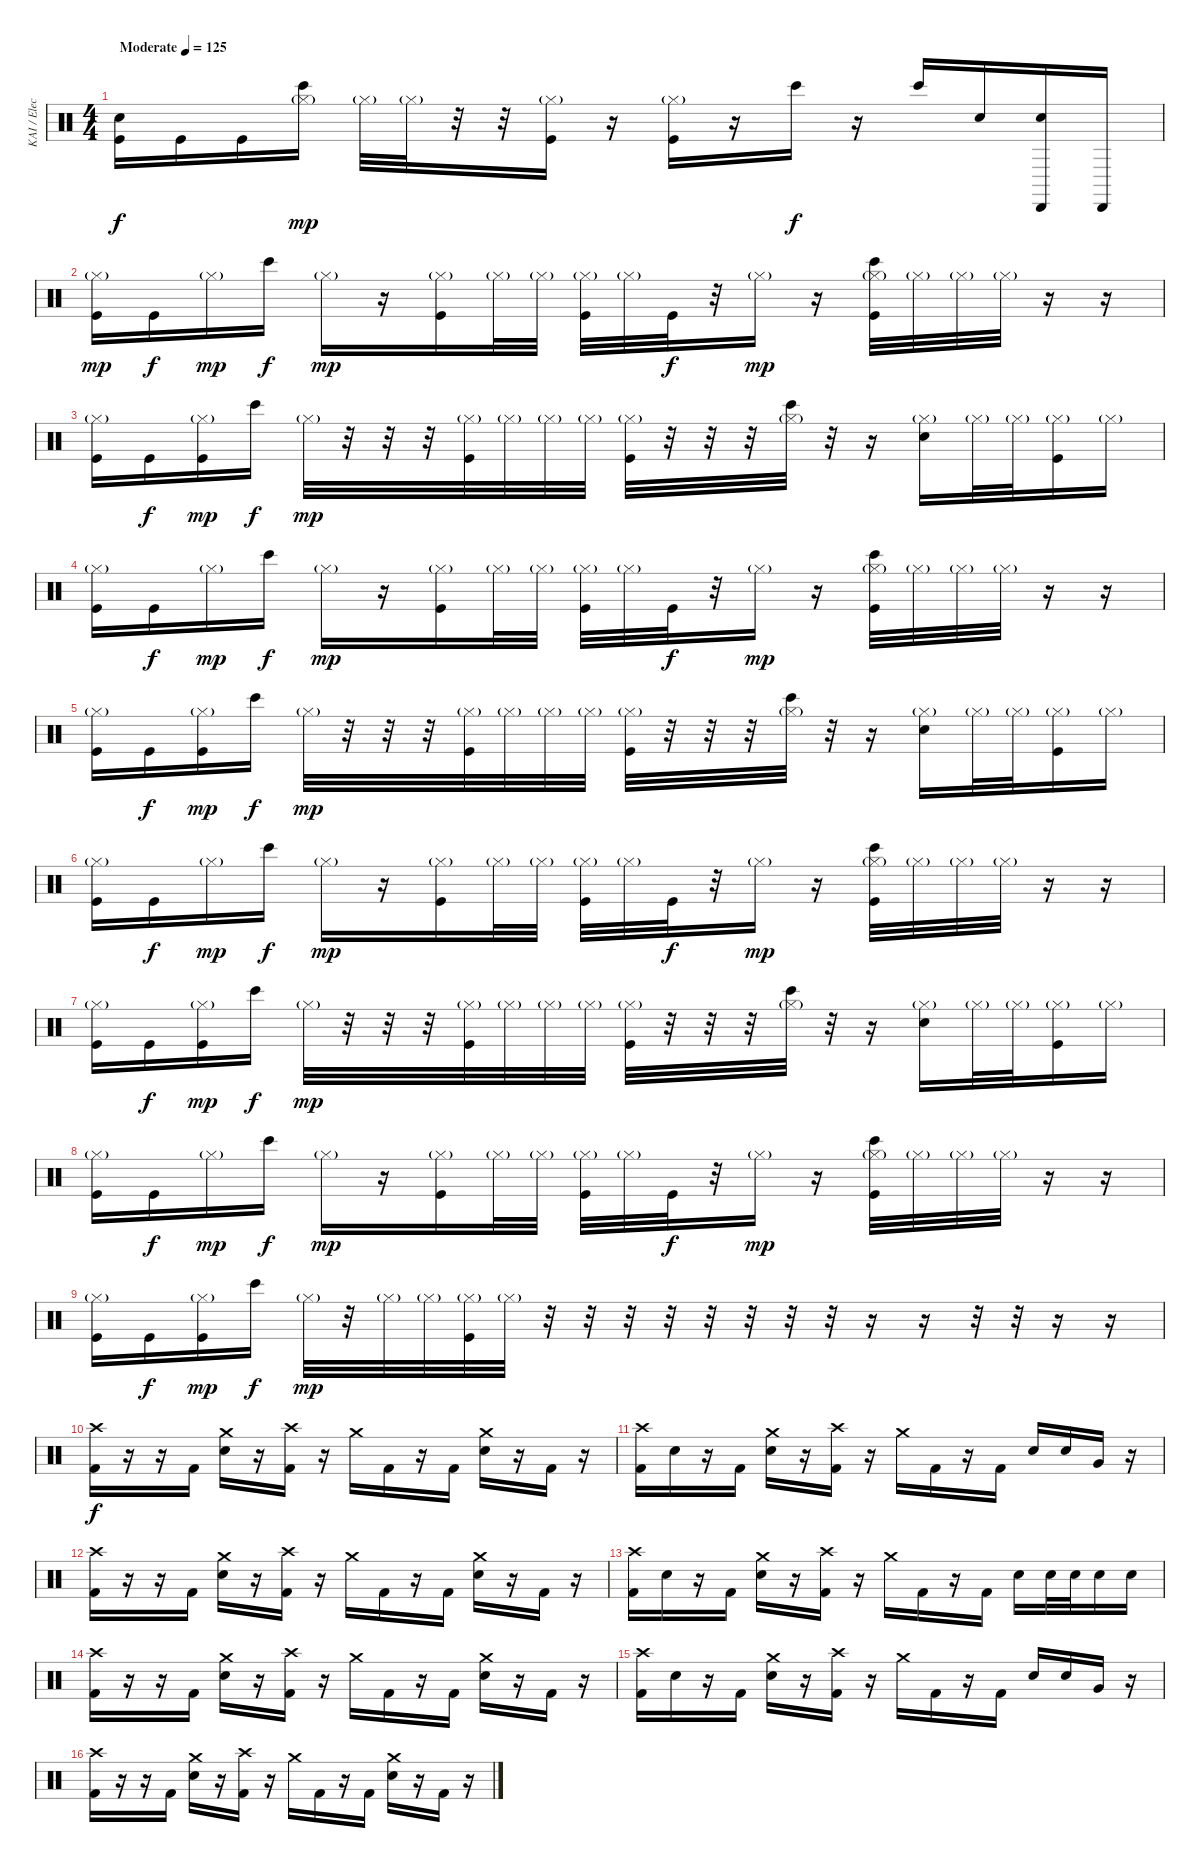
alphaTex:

\track ("KAI / Elect. Drums" "KAI / Elec") {instrument percussion}
\staff {score}
\articulation defaults
\ts (4 4)
\tempo (125 "Moderate")
\clef neutral
\ks c
("Hand Clap (hit)" "Kick (hit)").16{dy f} "Kick (hit)".16 "Kick (hit)".16 ("Bongo High (hit)" "Hi-Hat (closed)"{g}).16{dy mp} "Hi-Hat (closed)"{g}.32 "Hi-Hat (closed)"{g}.32 r.32 r.32 ("Hi-Hat (closed)"{g} "Kick (hit)").16 r.16 ("Hi-Hat (closed)"{g} "Kick (hit)").16 r.16 "Bongo High (hit)".16{dy f} r.16 "Bongo High (hit)".16 "Hand Clap (hit)".16 ("Hand Clap (hit)" "Cabasa (hit)").16 "Cabasa (hit)".16 |
("Hi-Hat (closed)"{g} "Kick (hit)").16{dy mp} "Kick (hit)".16{dy f} "Hi-Hat (closed)"{g}.16{dy mp} "Bongo High (hit)".16{dy f} "Hi-Hat (closed)"{g}.16{dy mp} r.16 ("Hi-Hat (closed)"{g} "Kick (hit)").16 "Hi-Hat (closed)"{g}.32 "Hi-Hat (closed)"{g}.32 ("Hi-Hat (closed)"{g} "Kick (hit)").32 "Hi-Hat (closed)"{g}.32 "Kick (hit)".32{dy f} r.32 "Hi-Hat (closed)"{g}.16{dy mp} r.16 ("Bongo High (hit)" "Hi-Hat (closed)"{g} "Kick (hit)").32 "Hi-Hat (closed)"{g}.32 "Hi-Hat (closed)"{g}.32 "Hi-Hat (closed)"{g}.32 r.16 r.16 |
("Hi-Hat (closed)"{g} "Kick (hit)").16 "Kick (hit)".16{dy f} ("Hi-Hat (closed)"{g} "Kick (hit)").16{dy mp} "Bongo High (hit)".16{dy f} "Hi-Hat (closed)"{g}.32{dy mp} r.32 r.32 r.32 ("Hi-Hat (closed)"{g} "Kick (hit)").32 "Hi-Hat (closed)"{g}.32 "Hi-Hat (closed)"{g}.32 "Hi-Hat (closed)"{g}.32 ("Hi-Hat (closed)"{g} "Kick (hit)").32 r.32 r.32 r.32 ("Bongo High (hit)" "Hi-Hat (closed)"{g}).32 r.32 r.16 ("Hand Clap (hit)" "Hi-Hat (closed)"{g}).16 "Hi-Hat (closed)"{g}.32 "Hi-Hat (closed)"{g}.32 ("Hi-Hat (closed)"{g} "Kick (hit)").16 "Hi-Hat (closed)"{g}.16 |
("Hi-Hat (closed)"{g} "Kick (hit)").16 "Kick (hit)".16{dy f} "Hi-Hat (closed)"{g}.16{dy mp} "Bongo High (hit)".16{dy f} "Hi-Hat (closed)"{g}.16{dy mp} r.16 ("Hi-Hat (closed)"{g} "Kick (hit)").16 "Hi-Hat (closed)"{g}.32 "Hi-Hat (closed)"{g}.32 ("Hi-Hat (closed)"{g} "Kick (hit)").32 "Hi-Hat (closed)"{g}.32 "Kick (hit)".32{dy f} r.32 "Hi-Hat (closed)"{g}.16{dy mp} r.16 ("Bongo High (hit)" "Hi-Hat (closed)"{g} "Kick (hit)").32 "Hi-Hat (closed)"{g}.32 "Hi-Hat (closed)"{g}.32 "Hi-Hat (closed)"{g}.32 r.16 r.16 |
("Hi-Hat (closed)"{g} "Kick (hit)").16 "Kick (hit)".16{dy f} ("Hi-Hat (closed)"{g} "Kick (hit)").16{dy mp} "Bongo High (hit)".16{dy f} "Hi-Hat (closed)"{g}.32{dy mp} r.32 r.32 r.32 ("Hi-Hat (closed)"{g} "Kick (hit)").32 "Hi-Hat (closed)"{g}.32 "Hi-Hat (closed)"{g}.32 "Hi-Hat (closed)"{g}.32 ("Hi-Hat (closed)"{g} "Kick (hit)").32 r.32 r.32 r.32 ("Bongo High (hit)" "Hi-Hat (closed)"{g}).32 r.32 r.16 ("Hand Clap (hit)" "Hi-Hat (closed)"{g}).16 "Hi-Hat (closed)"{g}.32 "Hi-Hat (closed)"{g}.32 ("Hi-Hat (closed)"{g} "Kick (hit)").16 "Hi-Hat (closed)"{g}.16 |
("Hi-Hat (closed)"{g} "Kick (hit)").16 "Kick (hit)".16{dy f} "Hi-Hat (closed)"{g}.16{dy mp} "Bongo High (hit)".16{dy f} "Hi-Hat (closed)"{g}.16{dy mp} r.16 ("Hi-Hat (closed)"{g} "Kick (hit)").16 "Hi-Hat (closed)"{g}.32 "Hi-Hat (closed)"{g}.32 ("Hi-Hat (closed)"{g} "Kick (hit)").32 "Hi-Hat (closed)"{g}.32 "Kick (hit)".32{dy f} r.32 "Hi-Hat (closed)"{g}.16{dy mp} r.16 ("Bongo High (hit)" "Hi-Hat (closed)"{g} "Kick (hit)").32 "Hi-Hat (closed)"{g}.32 "Hi-Hat (closed)"{g}.32 "Hi-Hat (closed)"{g}.32 r.16 r.16 |
("Hi-Hat (closed)"{g} "Kick (hit)").16 "Kick (hit)".16{dy f} ("Hi-Hat (closed)"{g} "Kick (hit)").16{dy mp} "Bongo High (hit)".16{dy f} "Hi-Hat (closed)"{g}.32{dy mp} r.32 r.32 r.32 ("Hi-Hat (closed)"{g} "Kick (hit)").32 "Hi-Hat (closed)"{g}.32 "Hi-Hat (closed)"{g}.32 "Hi-Hat (closed)"{g}.32 ("Hi-Hat (closed)"{g} "Kick (hit)").32 r.32 r.32 r.32 ("Bongo High (hit)" "Hi-Hat (closed)"{g}).32 r.32 r.16 ("Hand Clap (hit)" "Hi-Hat (closed)"{g}).16 "Hi-Hat (closed)"{g}.32 "Hi-Hat (closed)"{g}.32 ("Hi-Hat (closed)"{g} "Kick (hit)").16 "Hi-Hat (closed)"{g}.16 |
("Hi-Hat (closed)"{g} "Kick (hit)").16 "Kick (hit)".16{dy f} "Hi-Hat (closed)"{g}.16{dy mp} "Bongo High (hit)".16{dy f} "Hi-Hat (closed)"{g}.16{dy mp} r.16 ("Hi-Hat (closed)"{g} "Kick (hit)").16 "Hi-Hat (closed)"{g}.32 "Hi-Hat (closed)"{g}.32 ("Hi-Hat (closed)"{g} "Kick (hit)").32 "Hi-Hat (closed)"{g}.32 "Kick (hit)".32{dy f} r.32 "Hi-Hat (closed)"{g}.16{dy mp} r.16 ("Bongo High (hit)" "Hi-Hat (closed)"{g} "Kick (hit)").32 "Hi-Hat (closed)"{g}.32 "Hi-Hat (closed)"{g}.32 "Hi-Hat (closed)"{g}.32 r.16 r.16 |
("Hi-Hat (closed)"{g} "Kick (hit)").16 "Kick (hit)".16{dy f} ("Hi-Hat (closed)"{g} "Kick (hit)").16{dy mp} "Bongo High (hit)".16{dy f} "Hi-Hat (closed)"{g}.32{dy mp} r.32 "Hi-Hat (closed)"{g}.32 "Hi-Hat (closed)"{g}.32 ("Hi-Hat (closed)"{g} "Kick (hit)").32 "Hi-Hat (closed)"{g}.32 r.32 r.32 r.32 r.32 r.32 r.32 r.32 r.32 r.16 r.16 r.32 r.32 r.16 r.16 |
("Crash high (hit)" "Kick (hit) 2").16{dy f} r.16 r.16 "Kick (hit) 2".16 ("Crash medium (hit)" "Electric Snare (hit)").16 r.16 ("Crash high (hit)" "Kick (hit) 2").16 r.16 "Crash medium (hit)".16 "Kick (hit) 2".16 r.16 "Kick (hit) 2".16 ("Crash medium (hit)" "Electric Snare (hit)").16 r.16 "Kick (hit) 2".16 r.16 |
("Crash high (hit)" "Kick (hit) 2").16 "Electric Snare (hit)".16 r.16 "Kick (hit) 2".16 ("Crash medium (hit)" "Electric Snare (hit)").16 r.16 ("Crash high (hit)" "Kick (hit) 2").16 r.16 "Crash medium (hit)".16 "Kick (hit) 2".16 r.16 "Kick (hit) 2".16 "Electric Snare (hit)".16 "Electric Snare (hit)".16 "Very Low Tom (hit)".16 r.16 |
("Crash high (hit)" "Kick (hit) 2").16 r.16 r.16 "Kick (hit) 2".16 ("Crash medium (hit)" "Electric Snare (hit)").16 r.16 ("Crash high (hit)" "Kick (hit) 2").16 r.16 "Crash medium (hit)".16 "Kick (hit) 2".16 r.16 "Kick (hit) 2".16 ("Crash medium (hit)" "Electric Snare (hit)").16 r.16 "Kick (hit) 2".16 r.16 |
("Crash high (hit)" "Kick (hit) 2").16 "Electric Snare (hit)".16 r.16 "Kick (hit) 2".16 ("Crash medium (hit)" "Electric Snare (hit)").16 r.16 ("Crash high (hit)" "Kick (hit) 2").16 r.16 "Crash medium (hit)".16 "Kick (hit) 2".16 r.16 "Kick (hit) 2".16 "Electric Snare (hit)".16 "Electric Snare (hit)".32 "Electric Snare (hit)".32 "Electric Snare (hit)".16 "Electric Snare (hit)".16 |
("Crash high (hit)" "Kick (hit) 2").16 r.16 r.16 "Kick (hit) 2".16 ("Crash medium (hit)" "Electric Snare (hit)").16 r.16 ("Crash high (hit)" "Kick (hit) 2").16 r.16 "Crash medium (hit)".16 "Kick (hit) 2".16 r.16 "Kick (hit) 2".16 ("Crash medium (hit)" "Electric Snare (hit)").16 r.16 "Kick (hit) 2".16 r.16 |
("Crash high (hit)" "Kick (hit) 2").16 "Electric Snare (hit)".16 r.16 "Kick (hit) 2".16 ("Crash medium (hit)" "Electric Snare (hit)").16 r.16 ("Crash high (hit)" "Kick (hit) 2").16 r.16 "Crash medium (hit)".16 "Kick (hit) 2".16 r.16 "Kick (hit) 2".16 "Electric Snare (hit)".16 "Electric Snare (hit)".16 "Very Low Tom (hit)".16 r.16 |
("Crash high (hit)" "Kick (hit) 2").16 r.16 r.16 "Kick (hit) 2".16 ("Crash medium (hit)" "Electric Snare (hit)").16 r.16 ("Crash high (hit)" "Kick (hit) 2").16 r.16 "Crash medium (hit)".16 "Kick (hit) 2".16 r.16 "Kick (hit) 2".16 ("Crash medium (hit)" "Electric Snare (hit)").16 r.16 "Kick (hit) 2".16 r.16
